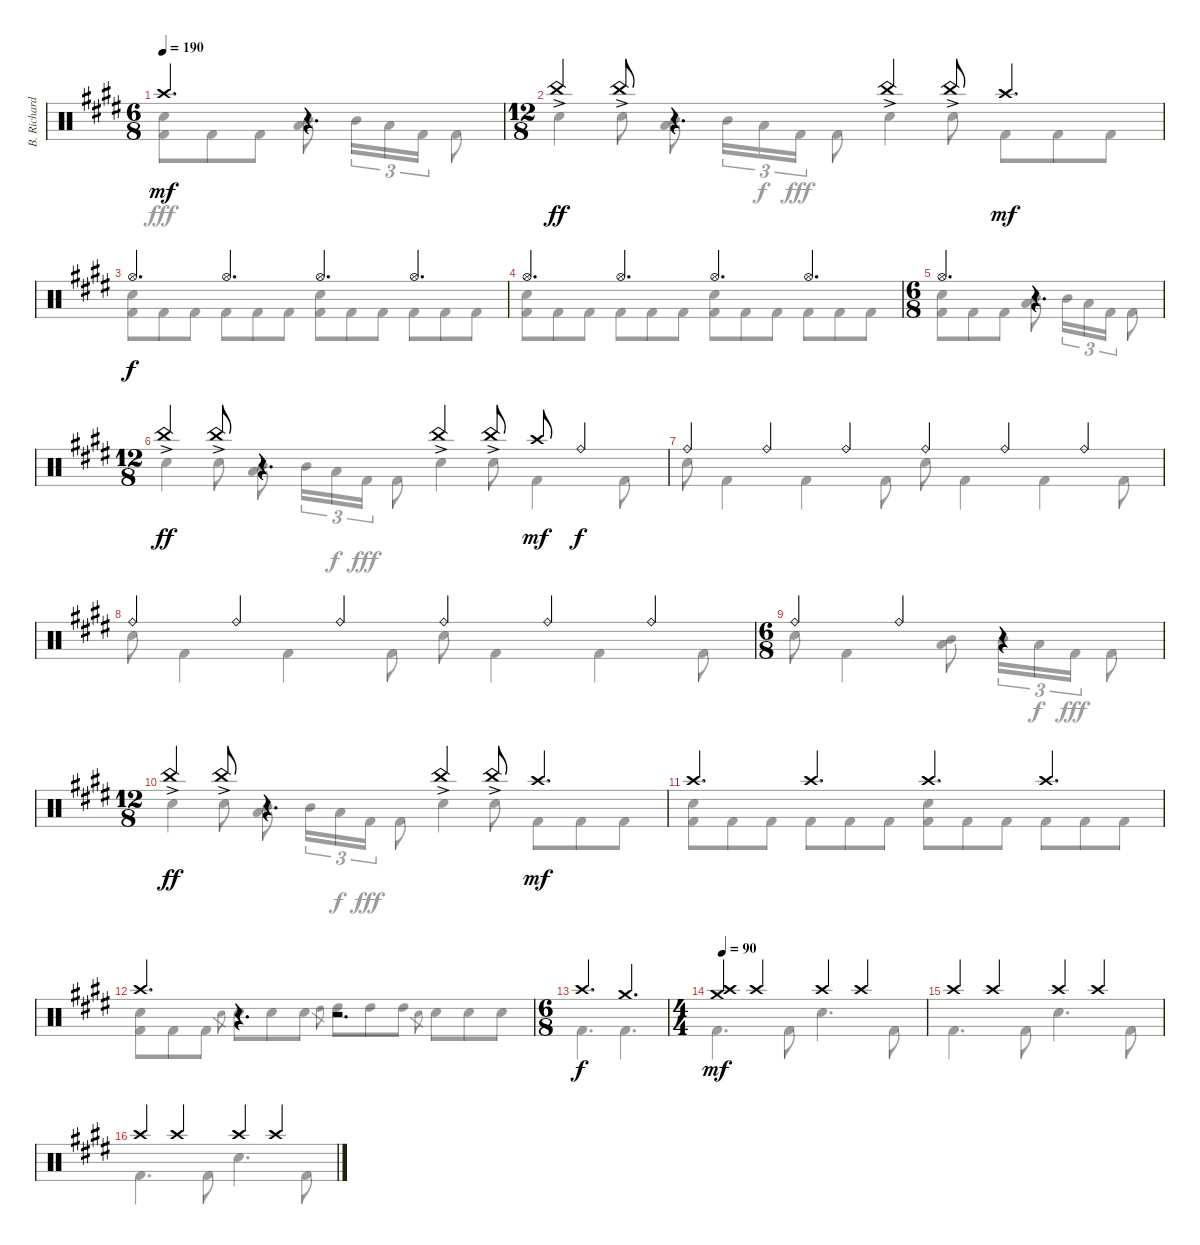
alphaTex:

\track ("B. Richardson Drums" "B. Richard") {instrument percussion}
\staff {score}
\articulation defaults
\voice
\ts (6 8)
\tempo 190
\clef neutral
\ks c#minor "Crash high (hit)".4{d dy mf}
r.4{d} |
\ts (12 8)
"China (hit)"{ac}.4{dy ff} "China (hit)"{ac}.8 r.4{d} "China (hit)"{ac}.4 "China (hit)"{ac}.8 "Crash high (hit)".4{d dy mf} |
"Hi-Hat (open)".4{d dy f} "Hi-Hat (open)".4{d} "Hi-Hat (open)".4{d} "Hi-Hat (open)".4{d} |
"Hi-Hat (open)".4{d} "Hi-Hat (open)".4{d} "Hi-Hat (open)".4{d} "Hi-Hat (open)".4{d} |
\ts (6 8)
"Hi-Hat (open)".4{d} r.4{d} |
\ts (12 8)
"China (hit)"{ac}.4{dy ff} "China (hit)"{ac}.8 r.4{d} "China (hit)"{ac}.4 "China (hit)"{ac}.8 "Crash high (hit)".8{dy mf} "Ride (bell)".4{dy f} |
"Ride (bell)".4 "Ride (bell)".4 "Ride (bell)".4 "Ride (bell)".4 "Ride (bell)".4 "Ride (bell)".4 |
"Ride (bell)".4 "Ride (bell)".4 "Ride (bell)".4 "Ride (bell)".4 "Ride (bell)".4 "Ride (bell)".4 |
\ts (6 8)
"Ride (bell)".4 "Ride (bell)".4 r.4 |
\ts (12 8)
"China (hit)"{ac}.4{dy ff} "China (hit)"{ac}.8 r.4{d} "China (hit)"{ac}.4 "China (hit)"{ac}.8 "Crash high (hit)".4{d dy mf} |
"Crash high (hit)".4{d} "Crash high (hit)".4{d} "Crash high (hit)".4{d} "Crash high (hit)".4{d} |
"Crash high (hit)".4{d} r.4{d} r.2{d} |
\ts (6 8)
"Crash high (hit)".4{d dy f} "Crash medium (hit)".4{d} |
\ts (4 4)
\tempo 90
("Crash high (hit)" "Crash medium (hit)").4{dy mf} "Crash high (hit)".4 "Crash high (hit)".4 "Crash high (hit)".4 |
"Crash high (hit)".4 "Crash high (hit)".4 "Crash high (hit)".4 "Crash high (hit)".4 |
"Crash high (hit)".4 "Crash high (hit)".4 "Crash high (hit)".4 "Crash high (hit)".4
\voice
\clef neutral
\ottava regular
\simile none
\ks c#minor
("Electric Snare (hit)" "Kick (hit) 2").8{dy fff} "Kick (hit) 2".8 "Kick (hit) 2".8 ("Mid Tom (hit)" "Low Tom (hit)").8 "Mid Tom (hit)".16{tu (3 2)} "Low Tom (hit)".16{tu (3 2)} "Kick (hit) 2".16{tu (3 2)} "Kick (hit) 2".8 |
"Electric Snare (hit)".4 "Electric Snare (hit)".8 ("Mid Tom (hit)" "Low Tom (hit)").8 "Mid Tom (hit)".16{tu (3 2)} "Low Tom (hit)".16{tu (3 2) dy f} "Kick (hit) 2".16{tu (3 2) dy fff} "Kick (hit) 2".8 "Electric Snare (hit)".4 "Electric Snare (hit)".8 "Kick (hit) 2".8 "Kick (hit) 2".8 "Kick (hit) 2".8 |
("Electric Snare (hit)" "Kick (hit) 2").8 "Kick (hit) 2".8 "Kick (hit) 2".8 "Kick (hit) 2".8 "Kick (hit) 2".8 "Kick (hit) 2".8 ("Electric Snare (hit)" "Kick (hit) 2").8 "Kick (hit) 2".8 "Kick (hit) 2".8 "Kick (hit) 2".8 "Kick (hit) 2".8 "Kick (hit) 2".8 |
("Electric Snare (hit)" "Kick (hit) 2").8 "Kick (hit) 2".8 "Kick (hit) 2".8 "Kick (hit) 2".8 "Kick (hit) 2".8 "Kick (hit) 2".8 ("Electric Snare (hit)" "Kick (hit) 2").8 "Kick (hit) 2".8 "Kick (hit) 2".8 "Kick (hit) 2".8 "Kick (hit) 2".8 "Kick (hit) 2".8 |
("Electric Snare (hit)" "Kick (hit) 2").8 "Kick (hit) 2".8 "Kick (hit) 2".8 ("Mid Tom (hit)" "Low Tom (hit)").8 "Mid Tom (hit)".16{tu (3 2)} "Low Tom (hit)".16{tu (3 2)} "Kick (hit) 2".16{tu (3 2)} "Kick (hit) 2".8 |
"Electric Snare (hit)".4 "Electric Snare (hit)".8 ("Mid Tom (hit)" "Low Tom (hit)").8 "Mid Tom (hit)".16{tu (3 2)} "Low Tom (hit)".16{tu (3 2) dy f} "Kick (hit) 2".16{tu (3 2) dy fff} "Kick (hit) 2".8 "Electric Snare (hit)".4 "Electric Snare (hit)".8 "Kick (hit) 2".4 "Kick (hit) 2".8 |
"Electric Snare (hit)".8 "Kick (hit) 2".4 "Kick (hit) 2".4 "Kick (hit) 2".8 "Electric Snare (hit)".8 "Kick (hit) 2".4 "Kick (hit) 2".4 "Kick (hit) 2".8 |
"Electric Snare (hit)".8 "Kick (hit) 2".4 "Kick (hit) 2".4 "Kick (hit) 2".8 "Electric Snare (hit)".8 "Kick (hit) 2".4 "Kick (hit) 2".4 "Kick (hit) 2".8 |
"Electric Snare (hit)".8 "Kick (hit) 2".4 ("Mid Tom (hit)" "Low Tom (hit)").8 "Mid Tom (hit)".16{tu (3 2)} "Low Tom (hit)".16{tu (3 2) dy f} "Kick (hit) 2".16{tu (3 2) dy fff} "Kick (hit) 2".8 |
"Electric Snare (hit)".4 "Electric Snare (hit)".8 ("Mid Tom (hit)" "Low Tom (hit)").8 "Mid Tom (hit)".16{tu (3 2)} "Low Tom (hit)".16{tu (3 2) dy f} "Kick (hit) 2".16{tu (3 2) dy fff} "Kick (hit) 2".8 "Electric Snare (hit)".4 "Electric Snare (hit)".8 "Kick (hit) 2".8 "Kick (hit) 2".8 "Kick (hit) 2".8 |
("Electric Snare (hit)" "Kick (hit) 2").8 "Kick (hit) 2".8 "Kick (hit) 2".8 "Kick (hit) 2".8 "Kick (hit) 2".8 "Kick (hit) 2".8 ("Electric Snare (hit)" "Kick (hit) 2").8 "Kick (hit) 2".8 "Kick (hit) 2".8 "Kick (hit) 2".8 "Kick (hit) 2".8 "Kick (hit) 2".8 |
("Electric Snare (hit)" "Kick (hit) 2").8 "Kick (hit) 2".8 "Kick (hit) 2".8 "Electric Snare (hit)".8{gr} "Electric Snare (hit)".8 "Electric Snare (hit)".8 "Electric Snare (hit)".8 "High Tom (hit)".8{gr} "High Tom (hit)".8 "High Tom (hit)".8 "High Tom (hit)".8 "Electric Snare (hit)".8{gr} "Electric Snare (hit)".8 "Electric Snare (hit)".8 "Electric Snare (hit)".8 |
"Kick (hit) 2".4{d} "Kick (hit) 2".4{d} |
"Kick (hit) 2".4{d} "Kick (hit) 2".8 "Electric Snare (hit)".4{d} "Kick (hit) 2".8 |
"Kick (hit) 2".4{d} "Kick (hit) 2".8 "Electric Snare (hit)".4{d} "Kick (hit) 2".8 |
"Kick (hit) 2".4{d} "Kick (hit) 2".8 "Electric Snare (hit)".4{d} "Kick (hit) 2".8
